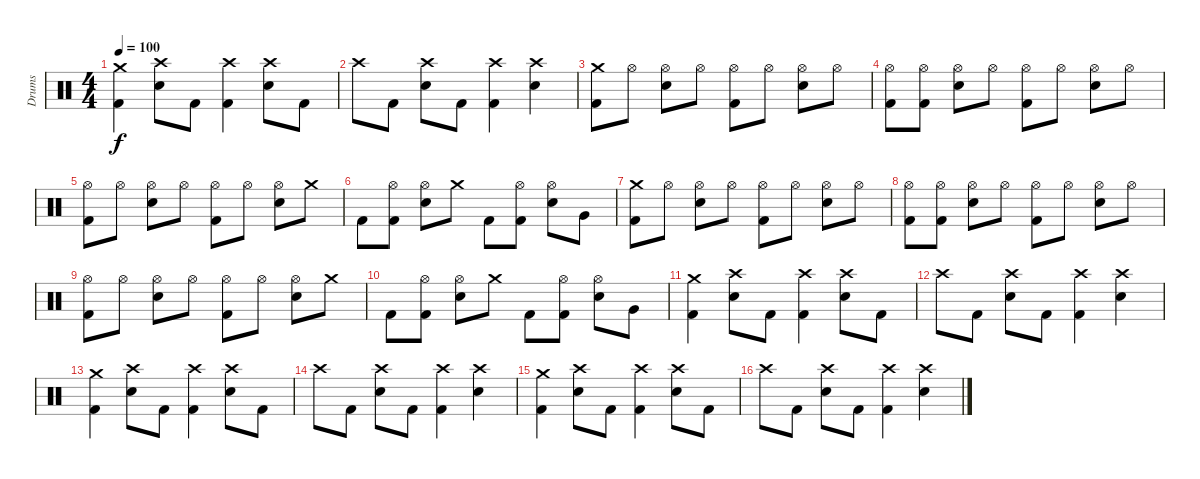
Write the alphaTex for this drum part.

\track ("Drums" "Drums") {instrument percussion}
\staff {score}
\articulation defaults
\ts (4 4)
\tempo 100
\clef neutral
\ks c
("Kick (hit) 2" "Crash medium (hit)").4{dy f} ("Electric Snare (hit)" "Crash high (hit)").8 "Kick (hit) 2".8 ("Kick (hit) 2" "Crash high (hit)").4 ("Electric Snare (hit)" "Crash high (hit)").8 "Kick (hit) 2".8 |
"Crash high (hit)".8 "Kick (hit) 2".8 ("Electric Snare (hit)" "Crash high (hit)").8 "Kick (hit) 2".8 ("Kick (hit) 2" "Crash high (hit)").4 ("Electric Snare (hit)" "Crash high (hit)").4 |
("Kick (hit) 2" "Crash medium (hit)").8 "Hi-Hat (open)".8 ("Electric Snare (hit)" "Hi-Hat (open)").8 "Hi-Hat (open)".8 ("Kick (hit) 2" "Hi-Hat (open)").8 "Hi-Hat (open)".8 ("Electric Snare (hit)" "Hi-Hat (open)").8 "Hi-Hat (open)".8 |
("Hi-Hat (open)" "Kick (hit) 2").8 ("Hi-Hat (open)" "Kick (hit) 2").8 ("Electric Snare (hit)" "Hi-Hat (open)").8 "Hi-Hat (open)".8 ("Kick (hit) 2" "Hi-Hat (open)").8 "Hi-Hat (open)".8 ("Electric Snare (hit)" "Hi-Hat (open)").8 "Hi-Hat (open)".8 |
("Hi-Hat (open)" "Kick (hit) 2").8 "Hi-Hat (open)".8 ("Electric Snare (hit)" "Hi-Hat (open)").8 "Hi-Hat (open)".8 ("Kick (hit) 2" "Hi-Hat (open)").8 "Hi-Hat (open)".8 ("Electric Snare (hit)" "Hi-Hat (open)").8 "Crash medium (hit)".8 |
"Kick (hit) 2".8 ("Hi-Hat (open)" "Kick (hit) 2").8 ("Electric Snare (hit)" "Hi-Hat (open)").8 "Crash medium (hit)".8 "Kick (hit) 2".8 ("Hi-Hat (open)" "Kick (hit) 2").8 ("Electric Snare (hit)" "Hi-Hat (open)").8 "Very Low Tom (hit)".8 |
("Kick (hit) 2" "Crash medium (hit)").8 "Hi-Hat (open)".8 ("Electric Snare (hit)" "Hi-Hat (open)").8 "Hi-Hat (open)".8 ("Kick (hit) 2" "Hi-Hat (open)").8 "Hi-Hat (open)".8 ("Electric Snare (hit)" "Hi-Hat (open)").8 "Hi-Hat (open)".8 |
("Hi-Hat (open)" "Kick (hit) 2").8 ("Hi-Hat (open)" "Kick (hit) 2").8 ("Electric Snare (hit)" "Hi-Hat (open)").8 "Hi-Hat (open)".8 ("Kick (hit) 2" "Hi-Hat (open)").8 "Hi-Hat (open)".8 ("Electric Snare (hit)" "Hi-Hat (open)").8 "Hi-Hat (open)".8 |
("Hi-Hat (open)" "Kick (hit) 2").8 "Hi-Hat (open)".8 ("Electric Snare (hit)" "Hi-Hat (open)").8 "Hi-Hat (open)".8 ("Kick (hit) 2" "Hi-Hat (open)").8 "Hi-Hat (open)".8 ("Electric Snare (hit)" "Hi-Hat (open)").8 "Crash medium (hit)".8 |
"Kick (hit) 2".8 ("Hi-Hat (open)" "Kick (hit) 2").8 ("Electric Snare (hit)" "Hi-Hat (open)").8 "Crash medium (hit)".8 "Kick (hit) 2".8 ("Hi-Hat (open)" "Kick (hit) 2").8 ("Electric Snare (hit)" "Hi-Hat (open)").8 "Very Low Tom (hit)".8 |
("Kick (hit) 2" "Crash medium (hit)").4 ("Electric Snare (hit)" "Crash high (hit)").8 "Kick (hit) 2".8 ("Kick (hit) 2" "Crash high (hit)").4 ("Electric Snare (hit)" "Crash high (hit)").8 "Kick (hit) 2".8 |
"Crash high (hit)".8 "Kick (hit) 2".8 ("Electric Snare (hit)" "Crash high (hit)").8 "Kick (hit) 2".8 ("Kick (hit) 2" "Crash high (hit)").4 ("Electric Snare (hit)" "Crash high (hit)").4 |
("Kick (hit) 2" "Crash medium (hit)").4 ("Electric Snare (hit)" "Crash high (hit)").8 "Kick (hit) 2".8 ("Kick (hit) 2" "Crash high (hit)").4 ("Electric Snare (hit)" "Crash high (hit)").8 "Kick (hit) 2".8 |
"Crash high (hit)".8 "Kick (hit) 2".8 ("Electric Snare (hit)" "Crash high (hit)").8 "Kick (hit) 2".8 ("Kick (hit) 2" "Crash high (hit)").4 ("Electric Snare (hit)" "Crash high (hit)").4 |
("Kick (hit) 2" "Crash medium (hit)").4 ("Electric Snare (hit)" "Crash high (hit)").8 "Kick (hit) 2".8 ("Kick (hit) 2" "Crash high (hit)").4 ("Electric Snare (hit)" "Crash high (hit)").8 "Kick (hit) 2".8 |
"Crash high (hit)".8 "Kick (hit) 2".8 ("Electric Snare (hit)" "Crash high (hit)").8 "Kick (hit) 2".8 ("Kick (hit) 2" "Crash high (hit)").4 ("Electric Snare (hit)" "Crash high (hit)").4
